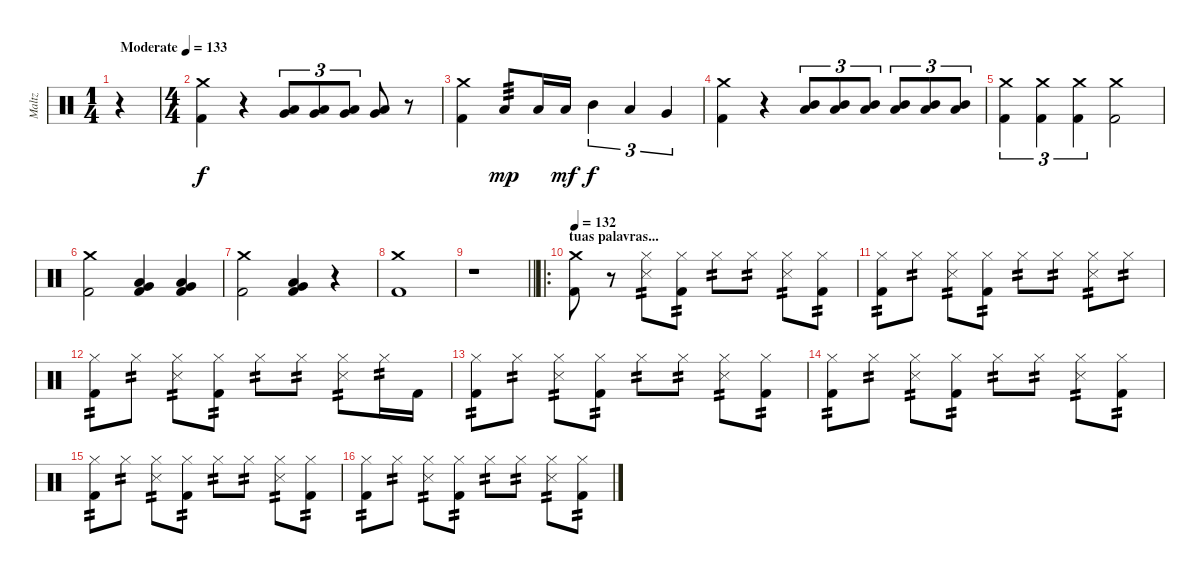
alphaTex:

\track ("Maltz" "Maltz") {instrument percussion}
\staff {score}
\articulation defaults
\ts (1 4)
\tempo (133 "Moderate")
\clef neutral
\ks c
r.4{dy f} |
\ts (4 4)
("Crash medium (hit)" "Kick (hit) 2").4 r.4 ("Low Tom (hit)" "Very Low Tom (hit)").8{tu (3 2)} ("Low Tom (hit)" "Very Low Tom (hit)").8{tu (3 2)} ("Low Tom (hit)" "Very Low Tom (hit)").8{tu (3 2)} ("Low Tom (hit)" "Very Low Tom (hit)").8 r.8 |
("Crash medium (hit)" "Kick (hit) 2").4 "Low Tom (hit)".8{tp 3 dy mp} "Low Tom (hit)".16 "Low Tom (hit)".16{dy mf} "Mid Tom (hit)".4{tu (3 2) dy f} "Low Tom (hit)".4{tu (3 2)} "Very Low Tom (hit)".4{tu (3 2)} |
("Crash medium (hit)" "Kick (hit) 2").4 r.4 ("Low Tom (hit)" "Mid Tom (hit)").8{tu (3 2)} ("Low Tom (hit)" "Mid Tom (hit)").8{tu (3 2)} ("Low Tom (hit)" "Mid Tom (hit)").8{tu (3 2)} ("Low Tom (hit)" "Mid Tom (hit)").8{tu (3 2)} ("Low Tom (hit)" "Mid Tom (hit)").8{tu (3 2)} ("Low Tom (hit)" "Mid Tom (hit)").8{tu (3 2)} |
("Crash medium (hit)" "Kick (hit) 2").4{tu (3 2)} ("Crash medium (hit)" "Kick (hit) 2").4{tu (3 2)} ("Crash medium (hit)" "Kick (hit) 2").4{tu (3 2)} ("Crash medium (hit)" "Kick (hit) 2").2 |
("Crash medium (hit)" "Kick (hit) 2").2 ("Very Low Tom (hit)" "Low Tom (hit)" "Kick (hit) 2").4 ("Very Low Tom (hit)" "Low Tom (hit)" "Kick (hit) 2").4 |
("Crash medium (hit)" "Kick (hit) 2").2 ("Very Low Tom (hit)" "Low Tom (hit)" "Kick (hit) 2").4 r.4 |
("Crash medium (hit)" "Kick (hit) 2").1 |
\barLineRight lightlight
r.1 |
\ro
\section ("" "tuas palavras...")
\tempo 132
("Crash medium (hit)" "Kick (hit) 2").8 r.8 ("Hi-Hat (closed)" "Snare (side stick) 3").8{tp 2} ("Hi-Hat (closed)" "Kick (hit) 2").8{tp 2} "Hi-Hat (closed)".8{tp 2} "Hi-Hat (closed)".8{tp 2} ("Hi-Hat (closed)" "Snare (side stick) 3").8{tp 2} ("Hi-Hat (closed)" "Kick (hit) 2").8{tp 2} |
("Hi-Hat (closed)" "Kick (hit) 2").8{tp 2} "Hi-Hat (closed)".8{tp 2} ("Hi-Hat (closed)" "Snare (side stick) 3").8{tp 2} ("Hi-Hat (closed)" "Kick (hit) 2").8{tp 2} "Hi-Hat (closed)".8{tp 2} "Hi-Hat (closed)".8{tp 2} ("Hi-Hat (closed)" "Snare (side stick) 3").8{tp 2} "Hi-Hat (closed)".8{tp 2} |
("Hi-Hat (closed)" "Kick (hit) 2").8{tp 2} "Hi-Hat (closed)".8{tp 2} ("Hi-Hat (closed)" "Snare (side stick) 3").8{tp 2} ("Hi-Hat (closed)" "Kick (hit) 2").8{tp 2} "Hi-Hat (closed)".8{tp 2} "Hi-Hat (closed)".8{tp 2} ("Hi-Hat (closed)" "Snare (side stick) 3").8{tp 2} "Hi-Hat (closed)".16{tp 2} "Kick (hit) 2".16 |
("Hi-Hat (closed)" "Kick (hit) 2").8{tp 2} "Hi-Hat (closed)".8{tp 2} ("Hi-Hat (closed)" "Snare (side stick) 3").8{tp 2} ("Hi-Hat (closed)" "Kick (hit) 2").8{tp 2} "Hi-Hat (closed)".8{tp 2} "Hi-Hat (closed)".8{tp 2} ("Hi-Hat (closed)" "Snare (side stick) 3").8{tp 2} ("Hi-Hat (closed)" "Kick (hit) 2").8{tp 2} |
("Hi-Hat (closed)" "Kick (hit) 2").8{tp 2} "Hi-Hat (closed)".8{tp 2} ("Hi-Hat (closed)" "Snare (side stick) 3").8{tp 2} ("Hi-Hat (closed)" "Kick (hit) 2").8{tp 2} "Hi-Hat (closed)".8{tp 2} "Hi-Hat (closed)".8{tp 2} ("Hi-Hat (closed)" "Snare (side stick) 3").8{tp 2} ("Hi-Hat (closed)" "Kick (hit) 2").8{tp 2} |
("Hi-Hat (closed)" "Kick (hit) 2").8{tp 2} "Hi-Hat (closed)".8{tp 2} ("Hi-Hat (closed)" "Snare (side stick) 3").8{tp 2} ("Hi-Hat (closed)" "Kick (hit) 2").8{tp 2} "Hi-Hat (closed)".8{tp 2} "Hi-Hat (closed)".8{tp 2} ("Hi-Hat (closed)" "Snare (side stick) 3").8{tp 2} ("Hi-Hat (closed)" "Kick (hit) 2").8{tp 2} |
("Hi-Hat (closed)" "Kick (hit) 2").8{tp 2} "Hi-Hat (closed)".8{tp 2} ("Hi-Hat (closed)" "Snare (side stick) 3").8{tp 2} ("Hi-Hat (closed)" "Kick (hit) 2").8{tp 2} "Hi-Hat (closed)".8{tp 2} "Hi-Hat (closed)".8{tp 2} ("Hi-Hat (closed)" "Snare (side stick) 3").8{tp 2} ("Hi-Hat (closed)" "Kick (hit) 2").8{tp 2}
